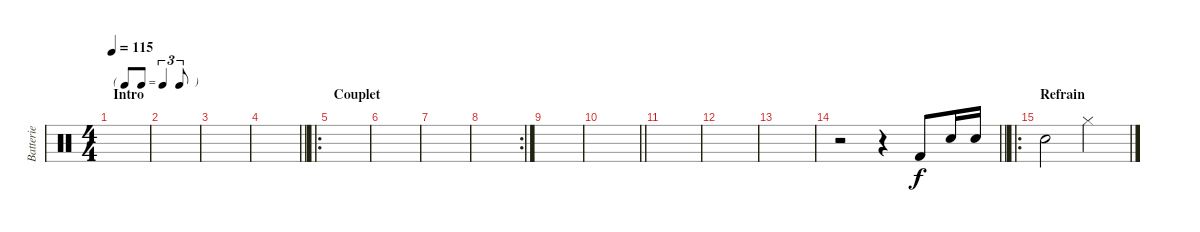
\track ("Batterie" "Batterie") {instrument percussion}
\staff {score}
\articulation defaults
\ts (4 4)
\tf triplet8th
\section ("" "Intro")
\tempo 115
\clef neutral
\ks c
|
|
|
\barLineRight lightlight
|
\ro
\section ("" "Couplet")
|
|
|
\rc 2
|
|
\barLineRight lightlight
|
|
|
|
\barLineRight lightlight
r.2 r.4 "Kick (hit) 2".8 "Electric Snare (hit)".16 "Electric Snare (hit)".16 |
\ro
\section ("" "Refrain")
"Snare (hit) 2".2 "Hi-Hat (closed)".2
